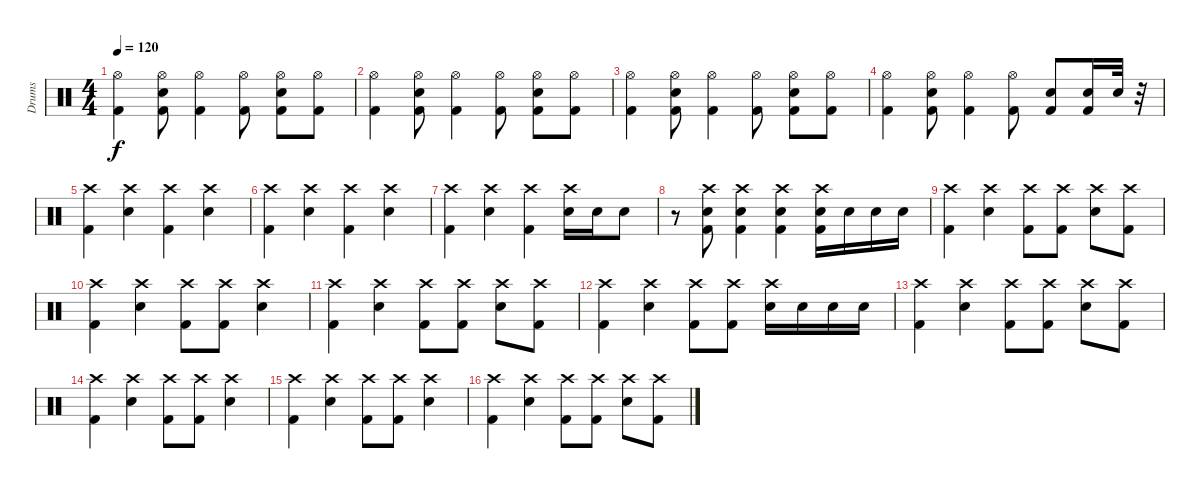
\track ("Drums" "Drums") {instrument percussion}
\staff {score}
\articulation defaults
\ts (4 4)
\tempo 120
\clef neutral
\ks c
("Hi-Hat (open)" "Kick (hit) 2").4{dy f} ("Electric Snare (hit)" "Hi-Hat (open)" "Kick (hit) 2").8 ("Hi-Hat (open)" "Kick (hit) 2").4 ("Hi-Hat (open)" "Kick (hit) 2").8 ("Electric Snare (hit)" "Hi-Hat (open)" "Kick (hit) 2").8 ("Hi-Hat (open)" "Kick (hit) 2").8 |
("Hi-Hat (open)" "Kick (hit) 2").4 ("Electric Snare (hit)" "Hi-Hat (open)" "Kick (hit) 2").8 ("Hi-Hat (open)" "Kick (hit) 2").4 ("Hi-Hat (open)" "Kick (hit) 2").8 ("Electric Snare (hit)" "Hi-Hat (open)" "Kick (hit) 2").8 ("Hi-Hat (open)" "Kick (hit) 2").8 |
("Hi-Hat (open)" "Kick (hit) 2").4 ("Electric Snare (hit)" "Hi-Hat (open)" "Kick (hit) 2").8 ("Hi-Hat (open)" "Kick (hit) 2").4 ("Hi-Hat (open)" "Kick (hit) 2").8 ("Electric Snare (hit)" "Hi-Hat (open)" "Kick (hit) 2").8 ("Hi-Hat (open)" "Kick (hit) 2").8 |
("Hi-Hat (open)" "Kick (hit) 2").4 ("Electric Snare (hit)" "Hi-Hat (open)" "Kick (hit) 2").8 ("Hi-Hat (open)" "Kick (hit) 2").4 ("Hi-Hat (open)" "Kick (hit) 2").8 ("Electric Snare (hit)" "Kick (hit) 2").8 ("Electric Snare (hit)" "Kick (hit) 2").16 "Electric Snare (hit)".32 r.32 |
("Crash high (hit)" "Kick (hit) 2").4 ("Crash high (hit)" "Electric Snare (hit)").4 ("Crash high (hit)" "Kick (hit) 2").4 ("Crash high (hit)" "Electric Snare (hit)").4 |
("Crash high (hit)" "Kick (hit) 2").4 ("Crash high (hit)" "Electric Snare (hit)").4 ("Crash high (hit)" "Kick (hit) 2").4 ("Crash high (hit)" "Electric Snare (hit)").4 |
("Crash high (hit)" "Kick (hit) 2").4 ("Crash high (hit)" "Electric Snare (hit)").4 ("Crash high (hit)" "Kick (hit) 2").4 ("Crash high (hit)" "Electric Snare (hit)").16 "Electric Snare (hit)".16 "Electric Snare (hit)".8 |
r.8 ("Crash high (hit)" "Electric Snare (hit)" "Kick (hit) 2").8 ("Crash high (hit)" "Electric Snare (hit)" "Kick (hit) 2").4 ("Crash high (hit)" "Electric Snare (hit)" "Kick (hit) 2").4 ("Crash high (hit)" "Electric Snare (hit)" "Kick (hit) 2").16 "Electric Snare (hit)".16 "Electric Snare (hit)".16 "Electric Snare (hit)".16 |
("Crash high (hit)" "Kick (hit) 2").4 ("Crash high (hit)" "Electric Snare (hit)").4 ("Crash high (hit)" "Kick (hit) 2").8 ("Crash high (hit)" "Kick (hit) 2").8 ("Crash high (hit)" "Electric Snare (hit)").8 ("Crash high (hit)" "Kick (hit) 2").8 |
("Crash high (hit)" "Kick (hit) 2").4 ("Crash high (hit)" "Electric Snare (hit)").4 ("Crash high (hit)" "Kick (hit) 2").8 ("Crash high (hit)" "Kick (hit) 2").8 ("Crash high (hit)" "Electric Snare (hit)").4 |
("Crash high (hit)" "Kick (hit) 2").4 ("Crash high (hit)" "Electric Snare (hit)").4 ("Crash high (hit)" "Kick (hit) 2").8 ("Crash high (hit)" "Kick (hit) 2").8 ("Crash high (hit)" "Electric Snare (hit)").8 ("Crash high (hit)" "Kick (hit) 2").8 |
("Crash high (hit)" "Kick (hit) 2").4 ("Crash high (hit)" "Electric Snare (hit)").4 ("Crash high (hit)" "Kick (hit) 2").8 ("Crash high (hit)" "Kick (hit) 2").8 ("Crash high (hit)" "Electric Snare (hit)").16 "Electric Snare (hit)".16 "Electric Snare (hit)".16 "Electric Snare (hit)".16 |
("Crash high (hit)" "Kick (hit) 2").4 ("Crash high (hit)" "Electric Snare (hit)").4 ("Crash high (hit)" "Kick (hit) 2").8 ("Crash high (hit)" "Kick (hit) 2").8 ("Crash high (hit)" "Electric Snare (hit)").8 ("Crash high (hit)" "Kick (hit) 2").8 |
("Crash high (hit)" "Kick (hit) 2").4 ("Crash high (hit)" "Electric Snare (hit)").4 ("Crash high (hit)" "Kick (hit) 2").8 ("Crash high (hit)" "Kick (hit) 2").8 ("Crash high (hit)" "Electric Snare (hit)").4 |
("Crash high (hit)" "Kick (hit) 2").4 ("Crash high (hit)" "Electric Snare (hit)").4 ("Crash high (hit)" "Kick (hit) 2").8 ("Crash high (hit)" "Kick (hit) 2").8 ("Crash high (hit)" "Electric Snare (hit)").4 |
("Crash high (hit)" "Kick (hit) 2").4 ("Crash high (hit)" "Electric Snare (hit)").4 ("Crash high (hit)" "Kick (hit) 2").8 ("Crash high (hit)" "Kick (hit) 2").8 ("Crash high (hit)" "Electric Snare (hit)").8 ("Crash high (hit)" "Kick (hit) 2").8
